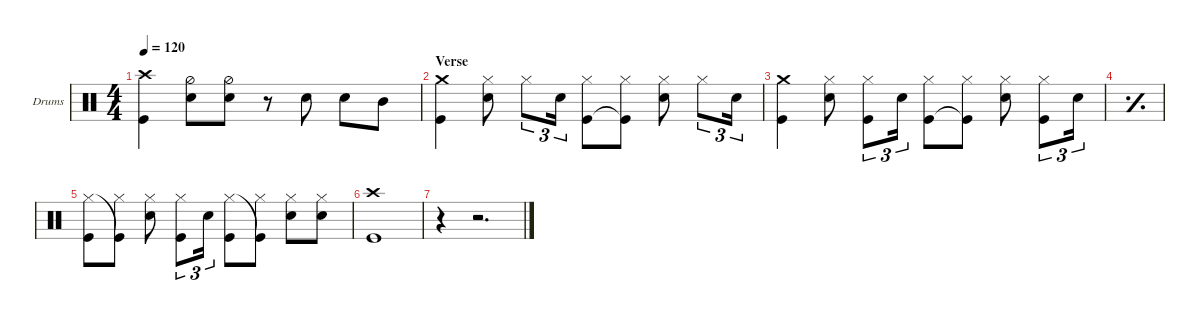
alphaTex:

\defaultSystemsLayout 4
\hideDynamics
\bracketExtendMode nobrackets
\firstSystemTrackNameOrientation horizontal
\otherSystemsTrackNameOrientation horizontal
\track ("Drums" "Drums") {multiBarRest instrument percussion}
\staff {score}
\articulation defaults
\ts (4 4)
\tempo 120
\clef neutral
\ks c
("Crash high (hit)" "Kick (hit)").4{dy mf} ("Snare (hit) 2" "Hi-Hat (half)").8 ("Snare (hit) 2" "Hi-Hat (half)").8 r.8 "Snare (hit) 2".8 "Snare (hit) 2".8 "Mid Tom (hit)".8 |
\section ("" "Verse")
("Kick (hit)" "Crash medium (hit)").4 ("Snare (hit) 2" "Hi-Hat (closed)").8 "Hi-Hat (closed)".8{tu (3 2)} "Snare (hit) 2".16{tu (3 2)} ("Kick (hit)" "Hi-Hat (closed)").8 ("Kick (hit)"{t} "Hi-Hat (closed)").8 ("Snare (hit) 2" "Hi-Hat (closed)").8 "Hi-Hat (closed)".8{tu (3 2)} "Snare (hit) 2".16{tu (3 2)} |
("Kick (hit)" "Crash medium (hit)").4 ("Snare (hit) 2" "Hi-Hat (closed)").8 ("Hi-Hat (closed)" "Kick (hit)").8{tu (3 2)} "Snare (hit) 2".16{tu (3 2)} ("Kick (hit)" "Hi-Hat (closed)").8 ("Kick (hit)"{t} "Hi-Hat (closed)").8 ("Snare (hit) 2" "Hi-Hat (closed)").8 ("Hi-Hat (closed)" "Kick (hit)").8{tu (3 2)} "Snare (hit) 2".16{tu (3 2)} |
\simile simple
|
\simile none
("Hi-Hat (closed)" "Kick (hit)").8 ("Kick (hit)"{t} "Hi-Hat (closed)").8 ("Hi-Hat (closed)" "Snare (hit) 2").8 ("Hi-Hat (closed)" "Kick (hit)").8{tu (3 2)} "Snare (hit) 2".16{tu (3 2)} ("Kick (hit)" "Hi-Hat (closed)").8 ("Hi-Hat (closed)" "Kick (hit)"{t}).8 ("Hi-Hat (closed)" "Snare (hit) 2").8 ("Hi-Hat (closed)" "Snare (hit) 2").8 |
("Kick (hit)" "Crash high (hit)").1 |
r.4 r.2{d}
